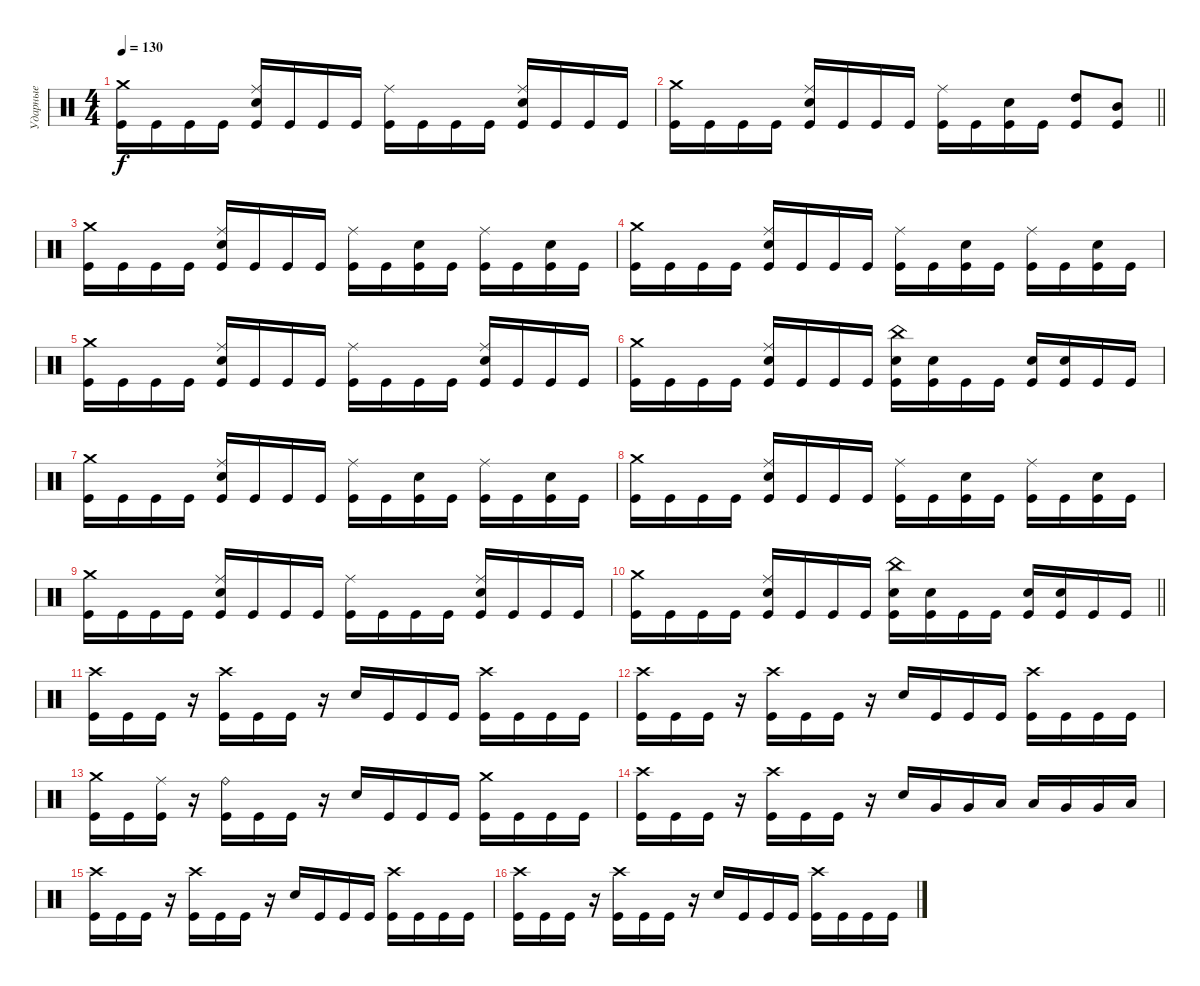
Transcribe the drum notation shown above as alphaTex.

\track ("Ударные" "Ударные") {instrument percussion}
\staff {score}
\articulation defaults
\ts (4 4)
\tempo 130
\clef neutral
\ks c
("Crash medium (hit)" "Kick (hit)").16{dy f} "Kick (hit)".16 "Kick (hit)".16 "Kick (hit)".16 ("Ride (middle)" "Electric Snare (hit)" "Kick (hit)").16 "Kick (hit)".16 "Kick (hit)".16 "Kick (hit)".16 ("Ride (middle)" "Kick (hit)").16 "Kick (hit)".16 "Kick (hit)".16 "Kick (hit)".16 ("Ride (middle)" "Electric Snare (hit)" "Kick (hit)").16 "Kick (hit)".16 "Kick (hit)".16 "Kick (hit)".16 |
\barLineRight lightlight
("Crash medium (hit)" "Kick (hit)").16 "Kick (hit)".16 "Kick (hit)".16 "Kick (hit)".16 ("Ride (middle)" "Electric Snare (hit)" "Kick (hit)").16 "Kick (hit)".16 "Kick (hit)".16 "Kick (hit)".16 ("Ride (middle)" "Kick (hit)").16 "Kick (hit)".16 ("Electric Snare (hit)" "Kick (hit)").16 "Kick (hit)".16 ("High Tom (hit)" "Kick (hit)").8 ("Mid Tom (hit)" "Kick (hit)").8 |
\section ("" " ")
("Crash medium (hit)" "Kick (hit)").16 "Kick (hit)".16 "Kick (hit)".16 "Kick (hit)".16 ("Ride (middle)" "Electric Snare (hit)" "Kick (hit)").16 "Kick (hit)".16 "Kick (hit)".16 "Kick (hit)".16 ("Ride (middle)" "Kick (hit)").16 "Kick (hit)".16 ("Electric Snare (hit)" "Kick (hit)").16 "Kick (hit)".16 ("Ride (middle)" "Kick (hit)").16 "Kick (hit)".16 ("Electric Snare (hit)" "Kick (hit)").16 "Kick (hit)".16 |
("Crash medium (hit)" "Kick (hit)").16 "Kick (hit)".16 "Kick (hit)".16 "Kick (hit)".16 ("Ride (middle)" "Electric Snare (hit)" "Kick (hit)").16 "Kick (hit)".16 "Kick (hit)".16 "Kick (hit)".16 ("Ride (middle)" "Kick (hit)").16 "Kick (hit)".16 ("Electric Snare (hit)" "Kick (hit)").16 "Kick (hit)".16 ("Ride (middle)" "Kick (hit)").16 "Kick (hit)".16 ("Electric Snare (hit)" "Kick (hit)").16 "Kick (hit)".16 |
("Crash medium (hit)" "Kick (hit)").16 "Kick (hit)".16 "Kick (hit)".16 "Kick (hit)".16 ("Ride (middle)" "Electric Snare (hit)" "Kick (hit)").16 "Kick (hit)".16 "Kick (hit)".16 "Kick (hit)".16 ("Ride (middle)" "Kick (hit)").16 "Kick (hit)".16 "Kick (hit)".16 "Kick (hit)".16 ("Ride (middle)" "Electric Snare (hit)" "Kick (hit)").16 "Kick (hit)".16 "Kick (hit)".16 "Kick (hit)".16 |
("Crash medium (hit)" "Kick (hit)").16 "Kick (hit)".16 "Kick (hit)".16 "Kick (hit)".16 ("Ride (middle)" "Electric Snare (hit)" "Kick (hit)").16 "Kick (hit)".16 "Kick (hit)".16 "Kick (hit)".16 ("China (hit)" "Electric Snare (hit)" "Kick (hit)").16 ("Electric Snare (hit)" "Kick (hit)").16 "Kick (hit)".16 "Kick (hit)".16 ("Electric Snare (hit)" "Kick (hit)").16 ("Electric Snare (hit)" "Kick (hit)").16 "Kick (hit)".16 "Kick (hit)".16 |
("Crash medium (hit)" "Kick (hit)").16 "Kick (hit)".16 "Kick (hit)".16 "Kick (hit)".16 ("Ride (middle)" "Electric Snare (hit)" "Kick (hit)").16 "Kick (hit)".16 "Kick (hit)".16 "Kick (hit)".16 ("Ride (middle)" "Kick (hit)").16 "Kick (hit)".16 ("Electric Snare (hit)" "Kick (hit)").16 "Kick (hit)".16 ("Ride (middle)" "Kick (hit)").16 "Kick (hit)".16 ("Electric Snare (hit)" "Kick (hit)").16 "Kick (hit)".16 |
("Crash medium (hit)" "Kick (hit)").16 "Kick (hit)".16 "Kick (hit)".16 "Kick (hit)".16 ("Ride (middle)" "Electric Snare (hit)" "Kick (hit)").16 "Kick (hit)".16 "Kick (hit)".16 "Kick (hit)".16 ("Ride (middle)" "Kick (hit)").16 "Kick (hit)".16 ("Electric Snare (hit)" "Kick (hit)").16 "Kick (hit)".16 ("Ride (middle)" "Kick (hit)").16 "Kick (hit)".16 ("Electric Snare (hit)" "Kick (hit)").16 "Kick (hit)".16 |
("Crash medium (hit)" "Kick (hit)").16 "Kick (hit)".16 "Kick (hit)".16 "Kick (hit)".16 ("Ride (middle)" "Electric Snare (hit)" "Kick (hit)").16 "Kick (hit)".16 "Kick (hit)".16 "Kick (hit)".16 ("Ride (middle)" "Kick (hit)").16 "Kick (hit)".16 "Kick (hit)".16 "Kick (hit)".16 ("Ride (middle)" "Electric Snare (hit)" "Kick (hit)").16 "Kick (hit)".16 "Kick (hit)".16 "Kick (hit)".16 |
\barLineRight lightlight
("Crash medium (hit)" "Kick (hit)").16 "Kick (hit)".16 "Kick (hit)".16 "Kick (hit)".16 ("Ride (middle)" "Electric Snare (hit)" "Kick (hit)").16 "Kick (hit)".16 "Kick (hit)".16 "Kick (hit)".16 ("China (hit)" "Electric Snare (hit)" "Kick (hit)").16 ("Electric Snare (hit)" "Kick (hit)").16 "Kick (hit)".16 "Kick (hit)".16 ("Electric Snare (hit)" "Kick (hit)").16 ("Electric Snare (hit)" "Kick (hit)").16 "Kick (hit)".16 "Kick (hit)".16 |
\section ("" " ")
("Crash high (hit)" "Kick (hit)").16 "Kick (hit)".16 "Kick (hit)".16 r.16 ("Crash high (hit)" "Kick (hit)").16 "Kick (hit)".16 "Kick (hit)".16 r.16 "Electric Snare (hit)".16 "Kick (hit)".16 "Kick (hit)".16 "Kick (hit)".16 ("Crash high (hit)" "Kick (hit)").16 "Kick (hit)".16 "Kick (hit)".16 "Kick (hit)".16 |
("Crash high (hit)" "Kick (hit)").16 "Kick (hit)".16 "Kick (hit)".16 r.16 ("Crash high (hit)" "Kick (hit)").16 "Kick (hit)".16 "Kick (hit)".16 r.16 "Electric Snare (hit)".16 "Kick (hit)".16 "Kick (hit)".16 "Kick (hit)".16 ("Crash high (hit)" "Kick (hit)").16 "Kick (hit)".16 "Kick (hit)".16 "Kick (hit)".16 |
("Crash medium (hit)" "Kick (hit)").16 "Kick (hit)".16 ("Ride (middle)" "Kick (hit)").16 r.16 ("Ride (bell)" "Kick (hit)").16 "Kick (hit)".16 "Kick (hit)".16 r.16 "Electric Snare (hit)".16 "Kick (hit)".16 "Kick (hit)".16 "Kick (hit)".16 ("Crash medium (hit)" "Kick (hit)").16 "Kick (hit)".16 "Kick (hit)".16 "Kick (hit)".16 |
("Crash high (hit)" "Kick (hit)").16 "Kick (hit)".16 "Kick (hit)".16 r.16 ("Crash high (hit)" "Kick (hit)").16 "Kick (hit)".16 "Kick (hit)".16 r.16 "Electric Snare (hit)".16 "Very Low Tom (hit)".16 "Very Low Tom (hit)".16 "Low Tom (hit)".16 "Low Tom (hit)".16 "Very Low Tom (hit)".16 "Very Low Tom (hit)".16 "Low Floor Tom (hit)".16 |
("Crash high (hit)" "Kick (hit)").16 "Kick (hit)".16 "Kick (hit)".16 r.16 ("Crash high (hit)" "Kick (hit)").16 "Kick (hit)".16 "Kick (hit)".16 r.16 "Electric Snare (hit)".16 "Kick (hit)".16 "Kick (hit)".16 "Kick (hit)".16 ("Crash high (hit)" "Kick (hit)").16 "Kick (hit)".16 "Kick (hit)".16 "Kick (hit)".16 |
("Crash high (hit)" "Kick (hit)").16 "Kick (hit)".16 "Kick (hit)".16 r.16 ("Crash high (hit)" "Kick (hit)").16 "Kick (hit)".16 "Kick (hit)".16 r.16 "Electric Snare (hit)".16 "Kick (hit)".16 "Kick (hit)".16 "Kick (hit)".16 ("Crash high (hit)" "Kick (hit)").16 "Kick (hit)".16 "Kick (hit)".16 "Kick (hit)".16
